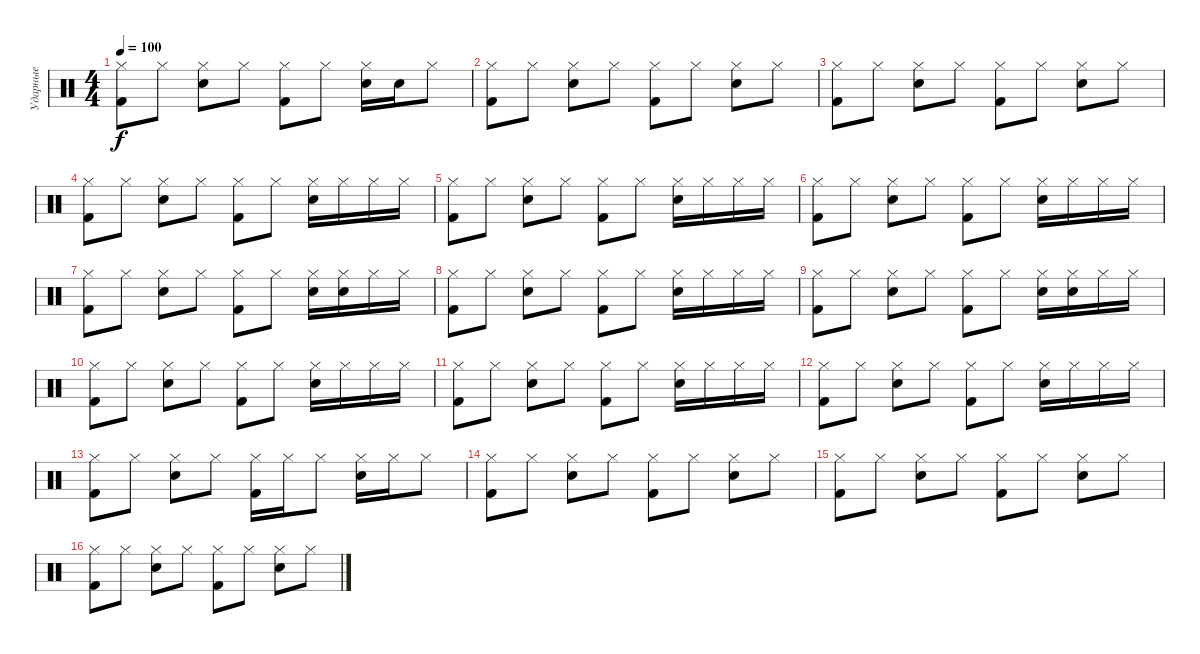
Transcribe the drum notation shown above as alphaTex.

\track ("Ударные" "Ударные") {instrument percussion}
\staff {score}
\articulation defaults
\ts (4 4)
\tempo 100
\clef neutral
\ks c
("Hi-Hat (closed)" "Kick (hit) 2").8{dy f} "Hi-Hat (closed)".8 ("Electric Snare (hit)" "Hi-Hat (closed)").8 "Hi-Hat (closed)".8 ("Hi-Hat (closed)" "Kick (hit) 2").8 "Hi-Hat (closed)".8 ("Electric Snare (hit)" "Hi-Hat (closed)").16 "Electric Snare (hit)".16 "Hi-Hat (closed)".8 |
("Hi-Hat (closed)" "Kick (hit) 2").8 "Hi-Hat (closed)".8 ("Electric Snare (hit)" "Hi-Hat (closed)").8 "Hi-Hat (closed)".8 ("Hi-Hat (closed)" "Kick (hit) 2").8 "Hi-Hat (closed)".8 ("Electric Snare (hit)" "Hi-Hat (closed)").8 "Hi-Hat (closed)".8 |
("Hi-Hat (closed)" "Kick (hit) 2").8 "Hi-Hat (closed)".8 ("Electric Snare (hit)" "Hi-Hat (closed)").8 "Hi-Hat (closed)".8 ("Hi-Hat (closed)" "Kick (hit) 2").8 "Hi-Hat (closed)".8 ("Electric Snare (hit)" "Hi-Hat (closed)").8 "Hi-Hat (closed)".8 |
("Hi-Hat (closed)" "Kick (hit) 2").8 "Hi-Hat (closed)".8 ("Electric Snare (hit)" "Hi-Hat (closed)").8 "Hi-Hat (closed)".8 ("Hi-Hat (closed)" "Kick (hit) 2").8 "Hi-Hat (closed)".8 ("Electric Snare (hit)" "Hi-Hat (closed)").16 "Hi-Hat (closed)".16 "Hi-Hat (closed)".16 "Hi-Hat (closed)".16 |
("Hi-Hat (closed)" "Kick (hit) 2").8 "Hi-Hat (closed)".8 ("Electric Snare (hit)" "Hi-Hat (closed)").8 "Hi-Hat (closed)".8 ("Hi-Hat (closed)" "Kick (hit) 2").8 "Hi-Hat (closed)".8 ("Electric Snare (hit)" "Hi-Hat (closed)").16 "Hi-Hat (closed)".16 "Hi-Hat (closed)".16 "Hi-Hat (closed)".16 |
("Hi-Hat (closed)" "Kick (hit) 2").8 "Hi-Hat (closed)".8 ("Electric Snare (hit)" "Hi-Hat (closed)").8 "Hi-Hat (closed)".8 ("Hi-Hat (closed)" "Kick (hit) 2").8 "Hi-Hat (closed)".8 ("Electric Snare (hit)" "Hi-Hat (closed)").16 "Hi-Hat (closed)".16 "Hi-Hat (closed)".16 "Hi-Hat (closed)".16 |
("Hi-Hat (closed)" "Kick (hit) 2").8 "Hi-Hat (closed)".8 ("Electric Snare (hit)" "Hi-Hat (closed)").8 "Hi-Hat (closed)".8 ("Hi-Hat (closed)" "Kick (hit) 2").8 "Hi-Hat (closed)".8 ("Electric Snare (hit)" "Hi-Hat (closed)").16 ("Electric Snare (hit)" "Hi-Hat (closed)").16 "Hi-Hat (closed)".16 "Hi-Hat (closed)".16 |
("Hi-Hat (closed)" "Kick (hit) 2").8 "Hi-Hat (closed)".8 ("Electric Snare (hit)" "Hi-Hat (closed)").8 "Hi-Hat (closed)".8 ("Hi-Hat (closed)" "Kick (hit) 2").8 "Hi-Hat (closed)".8 ("Electric Snare (hit)" "Hi-Hat (closed)").16 "Hi-Hat (closed)".16 "Hi-Hat (closed)".16 "Hi-Hat (closed)".16 |
("Hi-Hat (closed)" "Kick (hit) 2").8 "Hi-Hat (closed)".8 ("Electric Snare (hit)" "Hi-Hat (closed)").8 "Hi-Hat (closed)".8 ("Hi-Hat (closed)" "Kick (hit) 2").8 "Hi-Hat (closed)".8 ("Electric Snare (hit)" "Hi-Hat (closed)").16 ("Electric Snare (hit)" "Hi-Hat (closed)").16 "Hi-Hat (closed)".16 "Hi-Hat (closed)".16 |
("Hi-Hat (closed)" "Kick (hit) 2").8 "Hi-Hat (closed)".8 ("Electric Snare (hit)" "Hi-Hat (closed)").8 "Hi-Hat (closed)".8 ("Hi-Hat (closed)" "Kick (hit) 2").8 "Hi-Hat (closed)".8 ("Electric Snare (hit)" "Hi-Hat (closed)").16 "Hi-Hat (closed)".16 "Hi-Hat (closed)".16 "Hi-Hat (closed)".16 |
("Hi-Hat (closed)" "Kick (hit) 2").8 "Hi-Hat (closed)".8 ("Electric Snare (hit)" "Hi-Hat (closed)").8 "Hi-Hat (closed)".8 ("Hi-Hat (closed)" "Kick (hit) 2").8 "Hi-Hat (closed)".8 ("Electric Snare (hit)" "Hi-Hat (closed)").16 "Hi-Hat (closed)".16 "Hi-Hat (closed)".16 "Hi-Hat (closed)".16 |
("Hi-Hat (closed)" "Kick (hit) 2").8 "Hi-Hat (closed)".8 ("Electric Snare (hit)" "Hi-Hat (closed)").8 "Hi-Hat (closed)".8 ("Hi-Hat (closed)" "Kick (hit) 2").8 "Hi-Hat (closed)".8 ("Electric Snare (hit)" "Hi-Hat (closed)").16 "Hi-Hat (closed)".16 "Hi-Hat (closed)".16 "Hi-Hat (closed)".16 |
("Hi-Hat (closed)" "Kick (hit) 2").8 "Hi-Hat (closed)".8 ("Electric Snare (hit)" "Hi-Hat (closed)").8 "Hi-Hat (closed)".8 ("Hi-Hat (closed)" "Kick (hit) 2").16 "Hi-Hat (closed)".16 "Hi-Hat (closed)".8 ("Electric Snare (hit)" "Hi-Hat (closed)").16 "Hi-Hat (closed)".16 "Hi-Hat (closed)".8 |
("Hi-Hat (closed)" "Kick (hit) 2").8 "Hi-Hat (closed)".8 ("Electric Snare (hit)" "Hi-Hat (closed)").8 "Hi-Hat (closed)".8 ("Hi-Hat (closed)" "Kick (hit) 2").8 "Hi-Hat (closed)".8 ("Electric Snare (hit)" "Hi-Hat (closed)").8 "Hi-Hat (closed)".8 |
("Hi-Hat (closed)" "Kick (hit) 2").8 "Hi-Hat (closed)".8 ("Electric Snare (hit)" "Hi-Hat (closed)").8 "Hi-Hat (closed)".8 ("Hi-Hat (closed)" "Kick (hit) 2").8 "Hi-Hat (closed)".8 ("Electric Snare (hit)" "Hi-Hat (closed)").8 "Hi-Hat (closed)".8 |
("Hi-Hat (closed)" "Kick (hit) 2").8 "Hi-Hat (closed)".8 ("Electric Snare (hit)" "Hi-Hat (closed)").8 "Hi-Hat (closed)".8 ("Hi-Hat (closed)" "Kick (hit) 2").8 "Hi-Hat (closed)".8 ("Electric Snare (hit)" "Hi-Hat (closed)").8 "Hi-Hat (closed)".8
